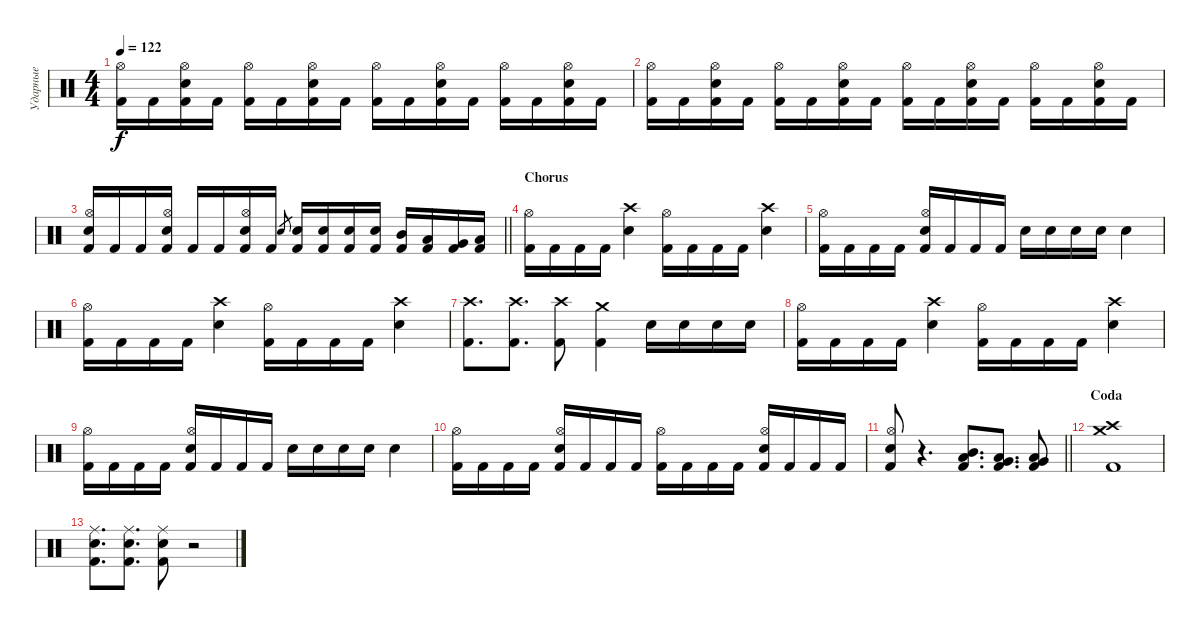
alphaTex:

\track ("Ударные" "Ударные") {instrument percussion}
\staff {score}
\articulation defaults
\ts (4 4)
\tempo 122
\clef neutral
\ks c
("Kick (hit) 2" "Hi-Hat (open)").16{dy f} "Kick (hit) 2".16 ("Kick (hit) 2" "Electric Snare (hit)" "Hi-Hat (open)").16 "Kick (hit) 2".16 ("Kick (hit) 2" "Hi-Hat (open)").16 "Kick (hit) 2".16 ("Kick (hit) 2" "Electric Snare (hit)" "Hi-Hat (open)").16 "Kick (hit) 2".16 ("Kick (hit) 2" "Hi-Hat (open)").16 "Kick (hit) 2".16 ("Kick (hit) 2" "Electric Snare (hit)" "Hi-Hat (open)").16 "Kick (hit) 2".16 ("Kick (hit) 2" "Hi-Hat (open)").16 "Kick (hit) 2".16 ("Kick (hit) 2" "Electric Snare (hit)" "Hi-Hat (open)").16 "Kick (hit) 2".16 |
("Kick (hit) 2" "Hi-Hat (open)").16 "Kick (hit) 2".16 ("Kick (hit) 2" "Electric Snare (hit)" "Hi-Hat (open)").16 "Kick (hit) 2".16 ("Kick (hit) 2" "Hi-Hat (open)").16 "Kick (hit) 2".16 ("Kick (hit) 2" "Electric Snare (hit)" "Hi-Hat (open)").16 "Kick (hit) 2".16 ("Kick (hit) 2" "Hi-Hat (open)").16 "Kick (hit) 2".16 ("Kick (hit) 2" "Electric Snare (hit)" "Hi-Hat (open)").16 "Kick (hit) 2".16 ("Kick (hit) 2" "Hi-Hat (open)").16 "Kick (hit) 2".16 ("Kick (hit) 2" "Electric Snare (hit)" "Hi-Hat (open)").16 "Kick (hit) 2".16 |
\barLineRight lightlight
("Kick (hit) 2" "Electric Snare (hit)" "Hi-Hat (open)").16 "Kick (hit) 2".16 "Kick (hit) 2".16 ("Kick (hit) 2" "Electric Snare (hit)" "Hi-Hat (open)").16 "Kick (hit) 2".16 "Kick (hit) 2".16 ("Kick (hit) 2" "Electric Snare (hit)" "Hi-Hat (open)").16 "Kick (hit) 2".16 "Electric Snare (hit)".8{gr} ("Kick (hit) 2" "Electric Snare (hit)").16 ("Kick (hit) 2" "Electric Snare (hit)").16 ("Kick (hit) 2" "Electric Snare (hit)").16 ("Kick (hit) 2" "Electric Snare (hit)").16 ("Kick (hit) 2" "Mid Tom (hit)").16 ("Kick (hit) 2" "Low Tom (hit)").16 ("Kick (hit) 2" "Very Low Tom (hit)").16 ("Kick (hit) 2" "Low Floor Tom (hit)").16 |
\section ("" "Chorus")
("Kick (hit) 2" "Hi-Hat (open)").16 "Kick (hit) 2".16 "Kick (hit) 2".16 "Kick (hit) 2".16 ("Electric Snare (hit)" "Crash high (hit)").4 ("Kick (hit) 2" "Hi-Hat (open)").16 "Kick (hit) 2".16 "Kick (hit) 2".16 "Kick (hit) 2".16 ("Electric Snare (hit)" "Crash high (hit)").4 |
("Kick (hit) 2" "Hi-Hat (open)").16 "Kick (hit) 2".16 "Kick (hit) 2".16 "Kick (hit) 2".16 ("Kick (hit) 2" "Electric Snare (hit)" "Hi-Hat (open)").16 "Kick (hit) 2".16 "Kick (hit) 2".16 "Kick (hit) 2".16 "Electric Snare (hit)".16 "Electric Snare (hit)".16 "Electric Snare (hit)".16 "Electric Snare (hit)".16 "Electric Snare (hit)".4 |
("Kick (hit) 2" "Hi-Hat (open)").16 "Kick (hit) 2".16 "Kick (hit) 2".16 "Kick (hit) 2".16 ("Electric Snare (hit)" "Crash high (hit)").4 ("Kick (hit) 2" "Hi-Hat (open)").16 "Kick (hit) 2".16 "Kick (hit) 2".16 "Kick (hit) 2".16 ("Electric Snare (hit)" "Crash high (hit)").4 |
("Kick (hit) 2" "Crash high (hit)").8{d} ("Kick (hit) 2" "Crash high (hit)").8{d} ("Kick (hit) 2" "Crash high (hit)").8 ("Kick (hit) 2" "Crash medium (hit)").4 "Electric Snare (hit)".16 "Electric Snare (hit)".16 "Electric Snare (hit)".16 "Electric Snare (hit)".16 |
("Kick (hit) 2" "Hi-Hat (open)").16 "Kick (hit) 2".16 "Kick (hit) 2".16 "Kick (hit) 2".16 ("Electric Snare (hit)" "Crash high (hit)").4 ("Kick (hit) 2" "Hi-Hat (open)").16 "Kick (hit) 2".16 "Kick (hit) 2".16 "Kick (hit) 2".16 ("Electric Snare (hit)" "Crash high (hit)").4 |
("Kick (hit) 2" "Hi-Hat (open)").16 "Kick (hit) 2".16 "Kick (hit) 2".16 "Kick (hit) 2".16 ("Kick (hit) 2" "Electric Snare (hit)" "Hi-Hat (open)").16 "Kick (hit) 2".16 "Kick (hit) 2".16 "Kick (hit) 2".16 "Electric Snare (hit)".16 "Electric Snare (hit)".16 "Electric Snare (hit)".16 "Electric Snare (hit)".16 "Electric Snare (hit)".4 |
("Kick (hit) 2" "Hi-Hat (open)").16 "Kick (hit) 2".16 "Kick (hit) 2".16 "Kick (hit) 2".16 ("Kick (hit) 2" "Electric Snare (hit)" "Hi-Hat (open)").16 "Kick (hit) 2".16 "Kick (hit) 2".16 "Kick (hit) 2".16 ("Kick (hit) 2" "Hi-Hat (open)").16 "Kick (hit) 2".16 "Kick (hit) 2".16 "Kick (hit) 2".16 ("Kick (hit) 2" "Electric Snare (hit)" "Hi-Hat (open)").16 "Kick (hit) 2".16 "Kick (hit) 2".16 "Kick (hit) 2".16 |
\barLineRight lightlight
("Kick (hit) 2" "Electric Snare (hit)" "Hi-Hat (open)").8 r.4{d} ("Kick (hit) 2" "Mid Tom (hit)" "Low Tom (hit)").8{d} ("Kick (hit) 2" "Low Tom (hit)" "Very Low Tom (hit)").8{d} ("Kick (hit) 2" "Very Low Tom (hit)" "Low Floor Tom (hit)").8 |
\section ("" "Coda")
("Kick (hit) 2" "Crash medium (hit)" "Crash high (hit)").1 |
("Kick (hit) 2" "Electric Snare (hit)" "Ride (middle)").8{d} ("Kick (hit) 2" "Electric Snare (hit)" "Ride (middle)").8{d} ("Kick (hit) 2" "Electric Snare (hit)" "Ride (middle)").8 r.2
